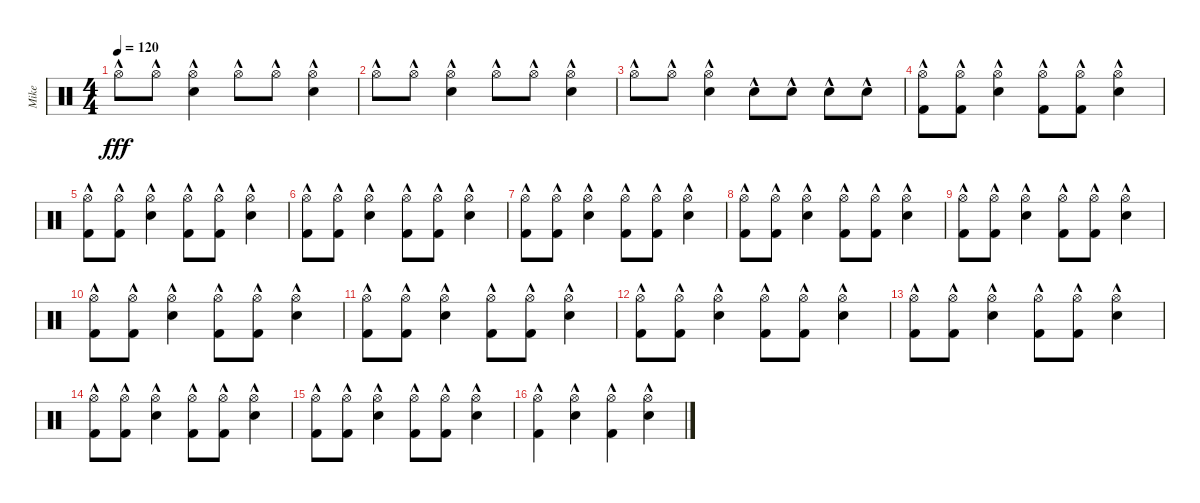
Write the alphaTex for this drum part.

\track ("Mike" "Mike") {instrument percussion}
\staff {score}
\articulation defaults
\ts (4 4)
\tempo 120
\clef neutral
\ks c "Hi-Hat (open)"{hac}.8{dy fff} "Hi-Hat (open)"{hac}.8
("Hi-Hat (open)"{hac} "Electric Snare (hit)"{hac}).4 "Hi-Hat (open)"{hac}.8 "Hi-Hat (open)"{hac}.8 ("Hi-Hat (open)"{hac} "Electric Snare (hit)"{hac}).4 |
"Hi-Hat (open)"{hac}.8 "Hi-Hat (open)"{hac}.8 ("Hi-Hat (open)"{hac} "Electric Snare (hit)"{hac}).4 "Hi-Hat (open)"{hac}.8 "Hi-Hat (open)"{hac}.8 ("Hi-Hat (open)"{hac} "Electric Snare (hit)"{hac}).4 |
"Hi-Hat (open)"{hac}.8 "Hi-Hat (open)"{hac}.8 ("Hi-Hat (open)"{hac} "Electric Snare (hit)"{hac}).4 "Electric Snare (hit)"{hac}.8 "Electric Snare (hit)"{hac}.8 "Electric Snare (hit)"{hac}.8 "Electric Snare (hit)"{hac}.8 |
("Hi-Hat (open)"{hac} "Kick (hit) 2"{hac}).8 ("Hi-Hat (open)"{hac} "Kick (hit) 2"{hac}).8 ("Hi-Hat (open)"{hac} "Electric Snare (hit)"{hac}).4 ("Hi-Hat (open)"{hac} "Kick (hit) 2"{hac}).8 ("Hi-Hat (open)"{hac} "Kick (hit) 2"{hac}).8 ("Hi-Hat (open)"{hac} "Electric Snare (hit)"{hac}).4 |
("Hi-Hat (open)"{hac} "Kick (hit) 2"{hac}).8 ("Hi-Hat (open)"{hac} "Kick (hit) 2"{hac}).8 ("Hi-Hat (open)"{hac} "Electric Snare (hit)"{hac}).4 ("Hi-Hat (open)"{hac} "Kick (hit) 2"{hac}).8 ("Hi-Hat (open)"{hac} "Kick (hit) 2"{hac}).8 ("Hi-Hat (open)"{hac} "Electric Snare (hit)"{hac}).4 |
("Hi-Hat (open)"{hac} "Kick (hit) 2"{hac}).8 ("Hi-Hat (open)"{hac} "Kick (hit) 2"{hac}).8 ("Hi-Hat (open)"{hac} "Electric Snare (hit)"{hac}).4 ("Hi-Hat (open)"{hac} "Kick (hit) 2"{hac}).8 ("Hi-Hat (open)"{hac} "Kick (hit) 2"{hac}).8 ("Hi-Hat (open)"{hac} "Electric Snare (hit)"{hac}).4 |
("Hi-Hat (open)"{hac} "Kick (hit) 2"{hac}).8 ("Hi-Hat (open)"{hac} "Kick (hit) 2"{hac}).8 ("Hi-Hat (open)"{hac} "Electric Snare (hit)"{hac}).4 ("Hi-Hat (open)"{hac} "Kick (hit) 2"{hac}).8 ("Hi-Hat (open)"{hac} "Kick (hit) 2"{hac}).8 ("Hi-Hat (open)"{hac} "Electric Snare (hit)"{hac}).4 |
("Hi-Hat (open)"{hac} "Kick (hit) 2"{hac}).8 ("Hi-Hat (open)"{hac} "Kick (hit) 2"{hac}).8 ("Hi-Hat (open)"{hac} "Electric Snare (hit)"{hac}).4 ("Hi-Hat (open)"{hac} "Kick (hit) 2"{hac}).8 ("Hi-Hat (open)"{hac} "Kick (hit) 2"{hac}).8 ("Hi-Hat (open)"{hac} "Electric Snare (hit)"{hac}).4 |
("Hi-Hat (open)"{hac} "Kick (hit) 2"{hac}).8 ("Hi-Hat (open)"{hac} "Kick (hit) 2"{hac}).8 ("Hi-Hat (open)"{hac} "Electric Snare (hit)"{hac}).4 ("Hi-Hat (open)"{hac} "Kick (hit) 2"{hac}).8 ("Hi-Hat (open)"{hac} "Kick (hit) 2"{hac}).8 ("Hi-Hat (open)"{hac} "Electric Snare (hit)"{hac}).4 |
("Hi-Hat (open)"{hac} "Kick (hit) 2"{hac}).8 ("Hi-Hat (open)"{hac} "Kick (hit) 2"{hac}).8 ("Hi-Hat (open)"{hac} "Electric Snare (hit)"{hac}).4 ("Hi-Hat (open)"{hac} "Kick (hit) 2"{hac}).8 ("Hi-Hat (open)"{hac} "Kick (hit) 2"{hac}).8 ("Hi-Hat (open)"{hac} "Electric Snare (hit)"{hac}).4 |
("Hi-Hat (open)"{hac} "Kick (hit) 2"{hac}).8 ("Hi-Hat (open)"{hac} "Kick (hit) 2"{hac}).8 ("Hi-Hat (open)"{hac} "Electric Snare (hit)"{hac}).4 ("Hi-Hat (open)"{hac} "Kick (hit) 2"{hac}).8 ("Hi-Hat (open)"{hac} "Kick (hit) 2"{hac}).8 ("Hi-Hat (open)"{hac} "Electric Snare (hit)"{hac}).4 |
("Hi-Hat (open)"{hac} "Kick (hit) 2"{hac}).8 ("Hi-Hat (open)"{hac} "Kick (hit) 2"{hac}).8 ("Hi-Hat (open)"{hac} "Electric Snare (hit)"{hac}).4 ("Hi-Hat (open)"{hac} "Kick (hit) 2"{hac}).8 ("Hi-Hat (open)"{hac} "Kick (hit) 2"{hac}).8 ("Hi-Hat (open)"{hac} "Electric Snare (hit)"{hac}).4 |
("Hi-Hat (open)"{hac} "Kick (hit) 2"{hac}).8 ("Hi-Hat (open)"{hac} "Kick (hit) 2"{hac}).8 ("Hi-Hat (open)"{hac} "Electric Snare (hit)"{hac}).4 ("Hi-Hat (open)"{hac} "Kick (hit) 2"{hac}).8 ("Hi-Hat (open)"{hac} "Kick (hit) 2"{hac}).8 ("Hi-Hat (open)"{hac} "Electric Snare (hit)"{hac}).4 |
("Hi-Hat (open)"{hac} "Kick (hit) 2"{hac}).8 ("Hi-Hat (open)"{hac} "Kick (hit) 2"{hac}).8 ("Hi-Hat (open)"{hac} "Electric Snare (hit)"{hac}).4 ("Hi-Hat (open)"{hac} "Kick (hit) 2"{hac}).8 ("Hi-Hat (open)"{hac} "Kick (hit) 2"{hac}).8 ("Hi-Hat (open)"{hac} "Electric Snare (hit)"{hac}).4 |
("Hi-Hat (open)"{hac} "Kick (hit) 2"{hac}).8 ("Hi-Hat (open)"{hac} "Kick (hit) 2"{hac}).8 ("Hi-Hat (open)"{hac} "Electric Snare (hit)"{hac}).4 ("Hi-Hat (open)"{hac} "Kick (hit) 2"{hac}).8 ("Hi-Hat (open)"{hac} "Kick (hit) 2"{hac}).8 ("Hi-Hat (open)"{hac} "Electric Snare (hit)"{hac}).4 |
("Hi-Hat (open)"{hac} "Kick (hit) 2"{hac}).4 ("Hi-Hat (open)"{hac} "Electric Snare (hit)"{hac}).4 ("Hi-Hat (open)"{hac} "Kick (hit) 2"{hac}).4 ("Hi-Hat (open)"{hac} "Electric Snare (hit)"{hac}).4
